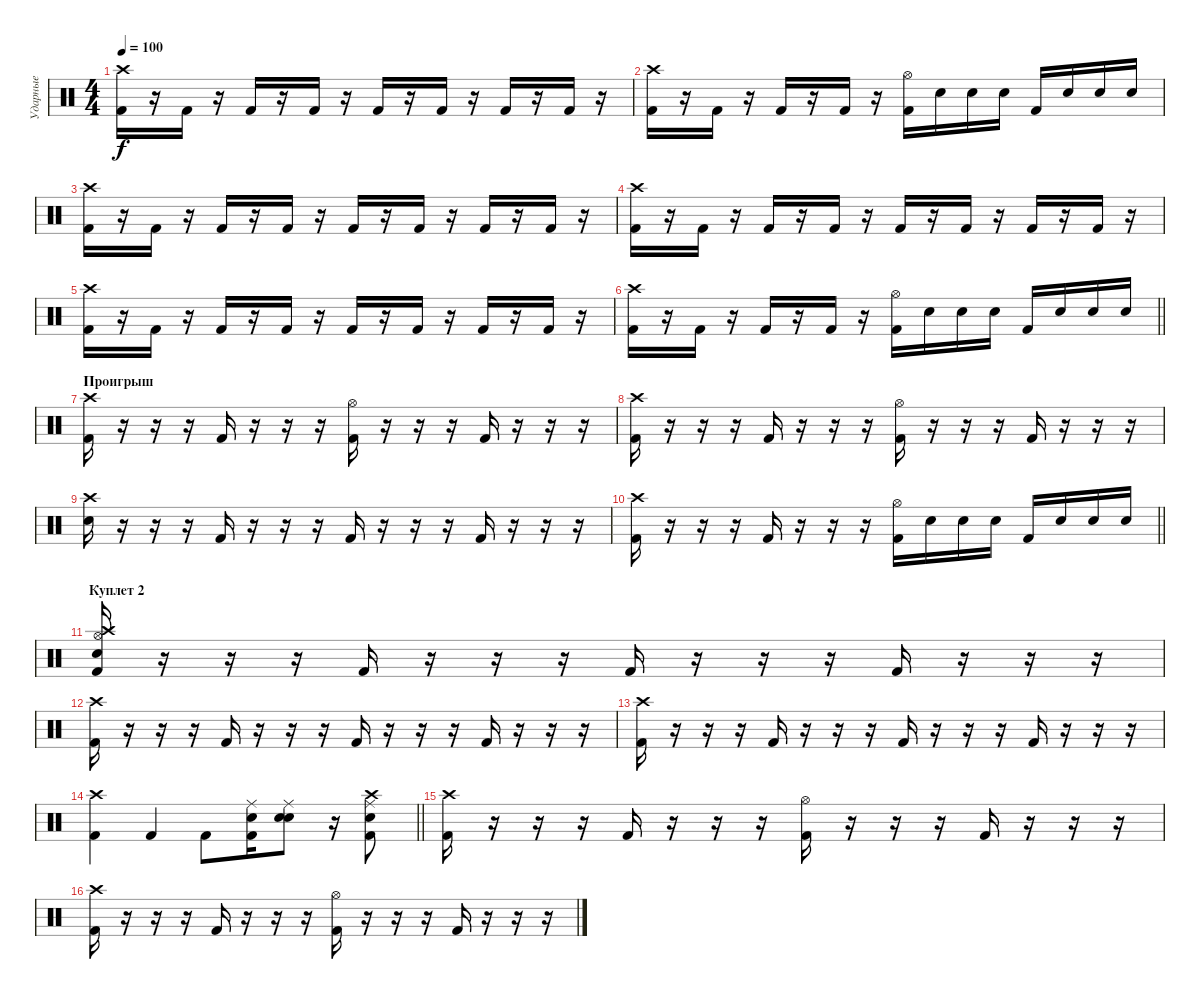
\track ("Ударные" "Ударные") {instrument percussion}
\staff {score}
\articulation defaults
\ts (4 4)
\tempo 100
\clef neutral
\ks c
("Kick (hit) 2" "Crash high (hit)").16{dy f} r.16 "Kick (hit) 2".16 r.16 "Kick (hit) 2".16 r.16 "Kick (hit) 2".16 r.16 "Kick (hit) 2".16 r.16 "Kick (hit) 2".16 r.16 "Kick (hit) 2".16 r.16 "Kick (hit) 2".16 r.16 |
("Kick (hit) 2" "Crash high (hit)").16 r.16 "Kick (hit) 2".16 r.16 "Kick (hit) 2".16 r.16 "Kick (hit) 2".16 r.16 ("Kick (hit) 2" "Hi-Hat (open)").16 "Snare (hit) 2".16 "Snare (hit) 2".16 "Snare (hit) 2".16 "Kick (hit) 2".16 "Snare (hit) 2".16 "Snare (hit) 2".16 "Snare (hit) 2".16 |
("Kick (hit) 2" "Crash high (hit)").16 r.16 "Kick (hit) 2".16 r.16 "Kick (hit) 2".16 r.16 "Kick (hit) 2".16 r.16 "Kick (hit) 2".16 r.16 "Kick (hit) 2".16 r.16 "Kick (hit) 2".16 r.16 "Kick (hit) 2".16 r.16 |
("Kick (hit) 2" "Crash high (hit)").16 r.16 "Kick (hit) 2".16 r.16 "Kick (hit) 2".16 r.16 "Kick (hit) 2".16 r.16 "Kick (hit) 2".16 r.16 "Kick (hit) 2".16 r.16 "Kick (hit) 2".16 r.16 "Kick (hit) 2".16 r.16 |
("Kick (hit) 2" "Crash high (hit)").16 r.16 "Kick (hit) 2".16 r.16 "Kick (hit) 2".16 r.16 "Kick (hit) 2".16 r.16 "Kick (hit) 2".16 r.16 "Kick (hit) 2".16 r.16 "Kick (hit) 2".16 r.16 "Kick (hit) 2".16 r.16 |
\barLineRight lightlight
("Kick (hit) 2" "Crash high (hit)").16 r.16 "Kick (hit) 2".16 r.16 "Kick (hit) 2".16 r.16 "Kick (hit) 2".16 r.16 ("Kick (hit) 2" "Hi-Hat (open)").16 "Snare (hit) 2".16 "Snare (hit) 2".16 "Snare (hit) 2".16 "Kick (hit) 2".16 "Snare (hit) 2".16 "Snare (hit) 2".16 "Snare (hit) 2".16 |
\section ("" "Проигрыш")
("Kick (hit) 2" "Crash high (hit)").16 r.16 r.16 r.16 "Kick (hit) 2".16 r.16 r.16 r.16 ("Kick (hit) 2" "Hi-Hat (open)").16 r.16 r.16 r.16 "Kick (hit) 2".16 r.16 r.16 r.16 |
("Kick (hit) 2" "Crash high (hit)").16 r.16 r.16 r.16 "Kick (hit) 2".16 r.16 r.16 r.16 ("Kick (hit) 2" "Hi-Hat (open)").16 r.16 r.16 r.16 "Kick (hit) 2".16 r.16 r.16 r.16 |
("Snare (hit) 2" "Crash high (hit)").16 r.16 r.16 r.16 "Kick (hit) 2".16 r.16 r.16 r.16 "Kick (hit) 2".16 r.16 r.16 r.16 "Kick (hit) 2".16 r.16 r.16 r.16 |
\barLineRight lightlight
("Kick (hit) 2" "Crash high (hit)").16 r.16 r.16 r.16 "Kick (hit) 2".16 r.16 r.16 r.16 ("Kick (hit) 2" "Hi-Hat (open)").16 "Snare (hit) 2".16 "Snare (hit) 2".16 "Snare (hit) 2".16 "Kick (hit) 2".16 "Snare (hit) 2".16 "Snare (hit) 2".16 "Snare (hit) 2".16 |
\section ("" "Куплет 2")
("Snare (hit) 2" "Crash high (hit)" "Hi-Hat (open)" "Kick (hit) 2").16 r.16 r.16 r.16 "Kick (hit) 2".16 r.16 r.16 r.16 "Kick (hit) 2".16 r.16 r.16 r.16 "Kick (hit) 2".16 r.16 r.16 r.16 |
("Kick (hit) 2" "Crash high (hit)").16 r.16 r.16 r.16 "Kick (hit) 2".16 r.16 r.16 r.16 "Kick (hit) 2".16 r.16 r.16 r.16 "Kick (hit) 2".16 r.16 r.16 r.16 |
("Kick (hit) 2" "Crash high (hit)").16 r.16 r.16 r.16 "Kick (hit) 2".16 r.16 r.16 r.16 "Kick (hit) 2".16 r.16 r.16 r.16 "Kick (hit) 2".16 r.16 r.16 r.16 |
\barLineRight lightlight
("Kick (hit) 2" "Crash high (hit)").4 "Kick (hit) 2".4 "Kick (hit) 2".8 ("Snare (hit) 2" "Kick (hit) 2" "Ride (middle)").16 ("Snare (hit) 2" "Electric Snare (hit)" "Ride (middle)").8 r.16 ("Snare (hit) 2" "Kick (hit) 2" "Crash high (hit)" "Ride (middle)").8 |
("Kick (hit) 2" "Crash high (hit)").16 r.16 r.16 r.16 "Kick (hit) 2".16 r.16 r.16 r.16 ("Kick (hit) 2" "Hi-Hat (open)").16 r.16 r.16 r.16 "Kick (hit) 2".16 r.16 r.16 r.16 |
("Kick (hit) 2" "Crash high (hit)").16 r.16 r.16 r.16 "Kick (hit) 2".16 r.16 r.16 r.16 ("Kick (hit) 2" "Hi-Hat (open)").16 r.16 r.16 r.16 "Kick (hit) 2".16 r.16 r.16 r.16
